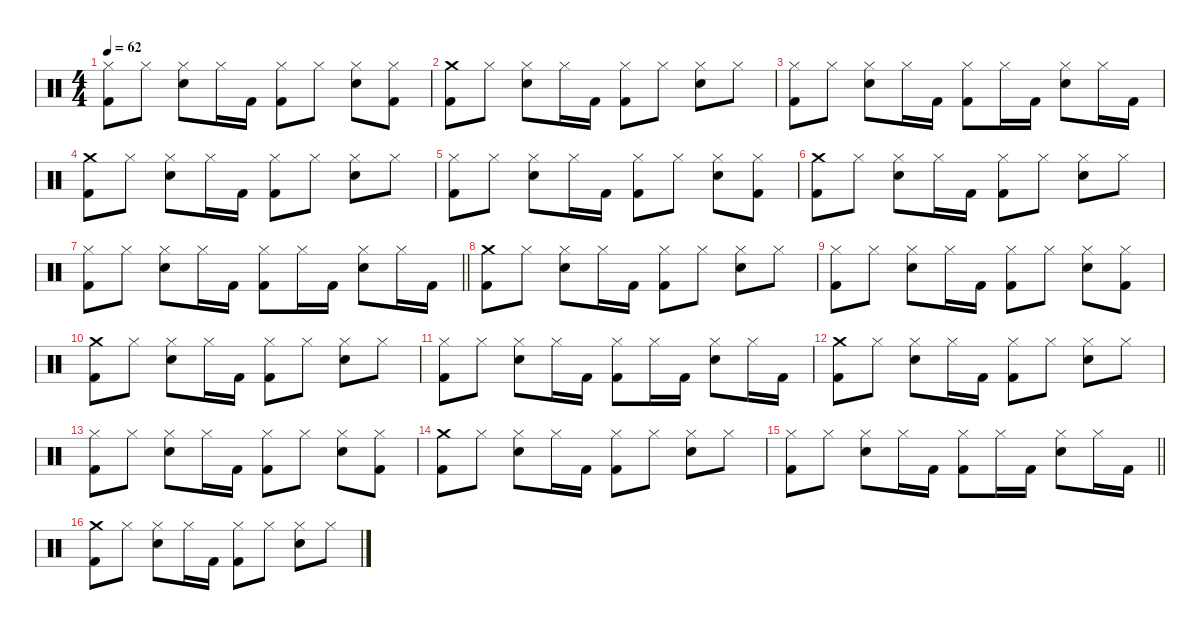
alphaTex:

\defaultSystemsLayout 4
\hideDynamics
\bracketExtendMode nobrackets
\singleTrackTrackNamePolicy hidden
\multiTrackTrackNamePolicy hidden
\firstSystemTrackNameMode fullname
\otherSystemsTrackNameOrientation horizontal
\track ("Drums" "drm.") {instrument percussion}
\staff {score}
\articulation defaults
\ts (4 4)
\tempo 62
\clef neutral
\ks c
("Hi-Hat (closed)" "Kick (hit) 2").8{dy f beam Down} "Hi-Hat (closed)".8{beam Down} ("Hi-Hat (closed)" "Snare (hit) 2").8{beam Down} "Hi-Hat (closed)".16{beam Down} "Kick (hit) 2".16{beam Down} ("Hi-Hat (closed)" "Kick (hit) 2").8{beam Down} "Hi-Hat (closed)".8{beam Down} ("Hi-Hat (closed)" "Snare (hit) 2").8{beam Down} ("Hi-Hat (closed)" "Kick (hit) 2").8{beam Down} |
("Crash medium (hit)" "Kick (hit) 2").8{beam Down} "Hi-Hat (closed)".8{beam Down} ("Hi-Hat (closed)" "Snare (hit) 2").8{beam Down} "Hi-Hat (closed)".16{beam Down} "Kick (hit) 2".16{beam Down} ("Hi-Hat (closed)" "Kick (hit) 2").8{beam Down} "Hi-Hat (closed)".8{beam Down} ("Hi-Hat (closed)" "Snare (hit) 2").8{beam Down} "Hi-Hat (closed)".8{beam Down} |
("Hi-Hat (closed)" "Kick (hit) 2").8{beam Down} "Hi-Hat (closed)".8{beam Down} ("Hi-Hat (closed)" "Snare (hit) 2").8{beam Down} "Hi-Hat (closed)".16{beam Down} "Kick (hit) 2".16{beam Down} ("Hi-Hat (closed)" "Kick (hit) 2").8{beam Down} "Hi-Hat (closed)".16{beam Down} "Kick (hit) 2".16{beam Down} ("Hi-Hat (closed)" "Snare (hit) 2").8{beam Down} "Hi-Hat (closed)".16{beam Down} "Kick (hit) 2".16{beam Down} |
("Crash medium (hit)" "Kick (hit) 2").8{beam Down} "Hi-Hat (closed)".8{beam Down} ("Hi-Hat (closed)" "Snare (hit) 2").8{beam Down} "Hi-Hat (closed)".16{beam Down} "Kick (hit) 2".16{beam Down} ("Hi-Hat (closed)" "Kick (hit) 2").8{beam Down} "Hi-Hat (closed)".8{beam Down} ("Hi-Hat (closed)" "Snare (hit) 2").8{beam Down} "Hi-Hat (closed)".8{beam Down} |
("Hi-Hat (closed)" "Kick (hit) 2").8{beam Down} "Hi-Hat (closed)".8{beam Down} ("Hi-Hat (closed)" "Snare (hit) 2").8{beam Down} "Hi-Hat (closed)".16{beam Down} "Kick (hit) 2".16{beam Down} ("Hi-Hat (closed)" "Kick (hit) 2").8{beam Down} "Hi-Hat (closed)".8{beam Down} ("Hi-Hat (closed)" "Snare (hit) 2").8{beam Down} ("Hi-Hat (closed)" "Kick (hit) 2").8{beam Down} |
("Crash medium (hit)" "Kick (hit) 2").8{beam Down} "Hi-Hat (closed)".8{beam Down} ("Hi-Hat (closed)" "Snare (hit) 2").8{beam Down} "Hi-Hat (closed)".16{beam Down} "Kick (hit) 2".16{beam Down} ("Hi-Hat (closed)" "Kick (hit) 2").8{beam Down} "Hi-Hat (closed)".8{beam Down} ("Hi-Hat (closed)" "Snare (hit) 2").8{beam Down} "Hi-Hat (closed)".8{beam Down} |
\barLineRight lightlight
("Hi-Hat (closed)" "Kick (hit) 2").8{beam Down} "Hi-Hat (closed)".8{beam Down} ("Hi-Hat (closed)" "Snare (hit) 2").8{beam Down} "Hi-Hat (closed)".16{beam Down} "Kick (hit) 2".16{beam Down} ("Hi-Hat (closed)" "Kick (hit) 2").8{beam Down} "Hi-Hat (closed)".16{beam Down} "Kick (hit) 2".16{beam Down} ("Hi-Hat (closed)" "Snare (hit) 2").8{beam Down} "Hi-Hat (closed)".16{beam Down} "Kick (hit) 2".16{beam Down} |
("Crash medium (hit)" "Kick (hit) 2").8{beam Down} "Hi-Hat (closed)".8{beam Down} ("Hi-Hat (closed)" "Snare (hit) 2").8{beam Down} "Hi-Hat (closed)".16{beam Down} "Kick (hit) 2".16{beam Down} ("Hi-Hat (closed)" "Kick (hit) 2").8{beam Down} "Hi-Hat (closed)".8{beam Down} ("Hi-Hat (closed)" "Snare (hit) 2").8{beam Down} "Hi-Hat (closed)".8{beam Down} |
("Hi-Hat (closed)" "Kick (hit) 2").8{beam Down} "Hi-Hat (closed)".8{beam Down} ("Hi-Hat (closed)" "Snare (hit) 2").8{beam Down} "Hi-Hat (closed)".16{beam Down} "Kick (hit) 2".16{beam Down} ("Hi-Hat (closed)" "Kick (hit) 2").8{beam Down} "Hi-Hat (closed)".8{beam Down} ("Hi-Hat (closed)" "Snare (hit) 2").8{beam Down} ("Hi-Hat (closed)" "Kick (hit) 2").8{beam Down} |
("Crash medium (hit)" "Kick (hit) 2").8{beam Down} "Hi-Hat (closed)".8{beam Down} ("Hi-Hat (closed)" "Snare (hit) 2").8{beam Down} "Hi-Hat (closed)".16{beam Down} "Kick (hit) 2".16{beam Down} ("Hi-Hat (closed)" "Kick (hit) 2").8{beam Down} "Hi-Hat (closed)".8{beam Down} ("Hi-Hat (closed)" "Snare (hit) 2").8{beam Down} "Hi-Hat (closed)".8{beam Down} |
("Hi-Hat (closed)" "Kick (hit) 2").8{beam Down} "Hi-Hat (closed)".8{beam Down} ("Hi-Hat (closed)" "Snare (hit) 2").8{beam Down} "Hi-Hat (closed)".16{beam Down} "Kick (hit) 2".16{beam Down} ("Hi-Hat (closed)" "Kick (hit) 2").8{beam Down} "Hi-Hat (closed)".16{beam Down} "Kick (hit) 2".16{beam Down} ("Hi-Hat (closed)" "Snare (hit) 2").8{beam Down} "Hi-Hat (closed)".16{beam Down} "Kick (hit) 2".16{beam Down} |
("Crash medium (hit)" "Kick (hit) 2").8{beam Down} "Hi-Hat (closed)".8{beam Down} ("Hi-Hat (closed)" "Snare (hit) 2").8{beam Down} "Hi-Hat (closed)".16{beam Down} "Kick (hit) 2".16{beam Down} ("Hi-Hat (closed)" "Kick (hit) 2").8{beam Down} "Hi-Hat (closed)".8{beam Down} ("Hi-Hat (closed)" "Snare (hit) 2").8{beam Down} "Hi-Hat (closed)".8{beam Down} |
("Hi-Hat (closed)" "Kick (hit) 2").8{beam Down} "Hi-Hat (closed)".8{beam Down} ("Hi-Hat (closed)" "Snare (hit) 2").8{beam Down} "Hi-Hat (closed)".16{beam Down} "Kick (hit) 2".16{beam Down} ("Hi-Hat (closed)" "Kick (hit) 2").8{beam Down} "Hi-Hat (closed)".8{beam Down} ("Hi-Hat (closed)" "Snare (hit) 2").8{beam Down} ("Hi-Hat (closed)" "Kick (hit) 2").8{beam Down} |
("Crash medium (hit)" "Kick (hit) 2").8{beam Down} "Hi-Hat (closed)".8{beam Down} ("Hi-Hat (closed)" "Snare (hit) 2").8{beam Down} "Hi-Hat (closed)".16{beam Down} "Kick (hit) 2".16{beam Down} ("Hi-Hat (closed)" "Kick (hit) 2").8{beam Down} "Hi-Hat (closed)".8{beam Down} ("Hi-Hat (closed)" "Snare (hit) 2").8{beam Down} "Hi-Hat (closed)".8{beam Down} |
\barLineRight lightlight
("Hi-Hat (closed)" "Kick (hit) 2").8{beam Down} "Hi-Hat (closed)".8{beam Down} ("Hi-Hat (closed)" "Snare (hit) 2").8{beam Down} "Hi-Hat (closed)".16{beam Down} "Kick (hit) 2".16{beam Down} ("Hi-Hat (closed)" "Kick (hit) 2").8{beam Down} "Hi-Hat (closed)".16{beam Down} "Kick (hit) 2".16{beam Down} ("Hi-Hat (closed)" "Snare (hit) 2").8{beam Down} "Hi-Hat (closed)".16{beam Down} "Kick (hit) 2".16{beam Down} |
("Crash medium (hit)" "Kick (hit) 2").8{beam Down} "Hi-Hat (closed)".8{beam Down} ("Hi-Hat (closed)" "Snare (hit) 2").8{beam Down} "Hi-Hat (closed)".16{beam Down} "Kick (hit) 2".16{beam Down} ("Hi-Hat (closed)" "Kick (hit) 2").8{beam Down} "Hi-Hat (closed)".8{beam Down} ("Hi-Hat (closed)" "Snare (hit) 2").8{beam Down} "Hi-Hat (closed)".8{beam Down}
